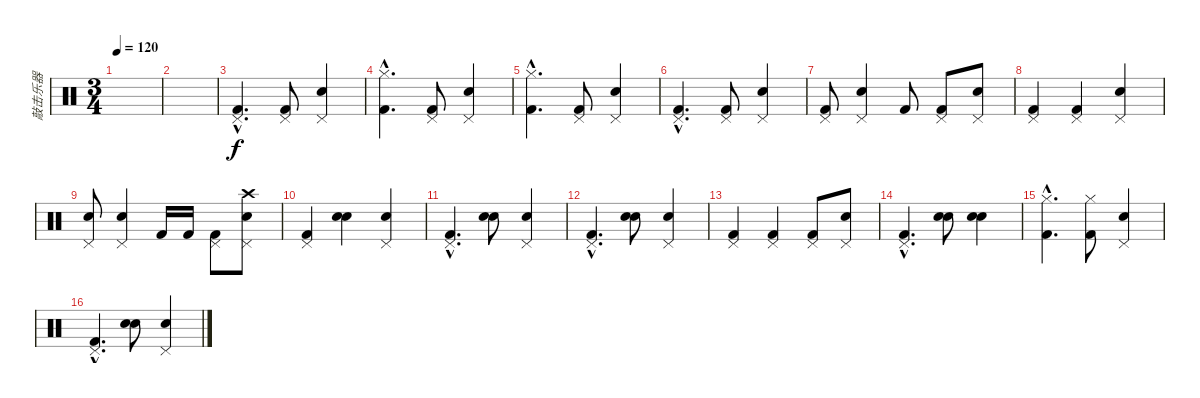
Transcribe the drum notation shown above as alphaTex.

\track ("敲击乐器" "敲击乐器") {instrument percussion}
\staff {score}
\articulation defaults
\ts (3 4)
\tempo 120
\clef neutral
\ks c
|
|
("Kick (hit) 2"{hac} "Pedal Hi-Hat (hit)"{hac}).4{d} ("Kick (hit) 2" "Pedal Hi-Hat (hit)").8 ("Snare (hit) 2" "Pedal Hi-Hat (hit)").4 |
("Kick (hit) 2"{hac} "Hi-Hat (closed)"{hac}).4{d} ("Kick (hit) 2" "Pedal Hi-Hat (hit)").8 ("Snare (hit) 2" "Pedal Hi-Hat (hit)").4 |
("Kick (hit) 2"{hac} "Hi-Hat (closed)"{hac}).4{d} ("Kick (hit) 2" "Pedal Hi-Hat (hit)").8 ("Snare (hit) 2" "Pedal Hi-Hat (hit)").4 |
("Kick (hit) 2"{hac} "Pedal Hi-Hat (hit)"{hac}).4{d} ("Kick (hit) 2" "Pedal Hi-Hat (hit)").8 ("Snare (hit) 2" "Pedal Hi-Hat (hit)").4 |
("Kick (hit) 2" "Pedal Hi-Hat (hit)").8 ("Pedal Hi-Hat (hit)" "Snare (hit) 2").4 "Kick (hit) 2".8 ("Kick (hit) 2" "Pedal Hi-Hat (hit)").8 ("Snare (hit) 2" "Pedal Hi-Hat (hit)").8 |
("Kick (hit) 2" "Pedal Hi-Hat (hit)").4 ("Kick (hit) 2" "Pedal Hi-Hat (hit)").4 ("Snare (hit) 2" "Pedal Hi-Hat (hit)").4 |
("Pedal Hi-Hat (hit)" "Snare (hit) 2").8 ("Pedal Hi-Hat (hit)" "Snare (hit) 2").4 "Kick (hit) 2".16 "Kick (hit) 2".16 ("Kick (hit) 2" "Pedal Hi-Hat (hit)").8 ("Snare (hit) 2" "Pedal Hi-Hat (hit)" "Crash high (hit)").8 |
("Kick (hit) 2" "Pedal Hi-Hat (hit)").4 ("Snare (hit) 2" "Electric Snare (hit)").4 ("Snare (hit) 2" "Pedal Hi-Hat (hit)").4 |
("Kick (hit) 2"{hac} "Pedal Hi-Hat (hit)"{hac}).4{d} ("Snare (hit) 2" "Electric Snare (hit)").8 ("Snare (hit) 2" "Pedal Hi-Hat (hit)").4 |
("Kick (hit) 2"{hac} "Pedal Hi-Hat (hit)"{hac}).4{d} ("Snare (hit) 2" "Electric Snare (hit)").8 ("Snare (hit) 2" "Pedal Hi-Hat (hit)").4 |
("Kick (hit) 2" "Pedal Hi-Hat (hit)").4 ("Kick (hit) 2" "Pedal Hi-Hat (hit)").4 ("Kick (hit) 2" "Pedal Hi-Hat (hit)").8 ("Snare (hit) 2" "Pedal Hi-Hat (hit)").8 |
("Kick (hit) 2"{hac} "Pedal Hi-Hat (hit)"{hac}).4{d} ("Snare (hit) 2" "Electric Snare (hit)").8 ("Snare (hit) 2" "Electric Snare (hit)").4 |
("Kick (hit) 2"{hac} "Hi-Hat (closed)"{hac}).4{d} ("Kick (hit) 2" "Hi-Hat (closed)").8 ("Pedal Hi-Hat (hit)" "Snare (hit) 2").4 |
("Kick (hit) 2"{hac} "Pedal Hi-Hat (hit)"{hac}).4{d} ("Snare (hit) 2" "Electric Snare (hit)").8 ("Snare (hit) 2" "Pedal Hi-Hat (hit)").4
